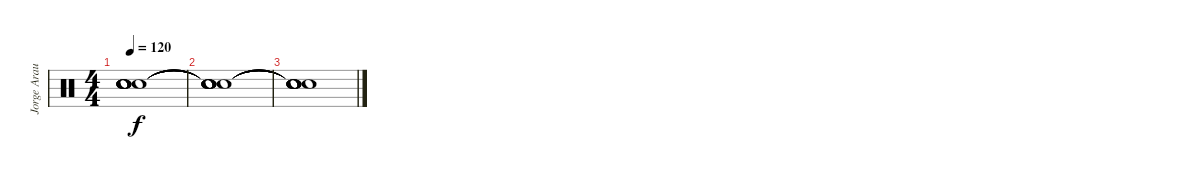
\track ("Jorge Araujo" "Jorge Arau") {instrument percussion}
\staff {score}
\articulation defaults
\ts (4 4)
\tempo 120
\clef neutral
\ks c
("Snare (hit)"{t} "Snare (hit)"{t} "Snare (hit)"{t} "Snare (hit)"{t} "Snare (hit)"{t} "Snare (hit)"{t}).1{dy f} |
("Snare (hit)"{t} "Snare (hit)"{t} "Snare (hit)"{t} "Snare (hit)"{t} "Snare (hit)"{t} "Snare (hit)"{t}).1 |
("Snare (hit)"{t} "Snare (hit)"{t} "Snare (hit)"{t} "Snare (hit)"{t} "Snare (hit)"{t} "Snare (hit)"{t}).1
